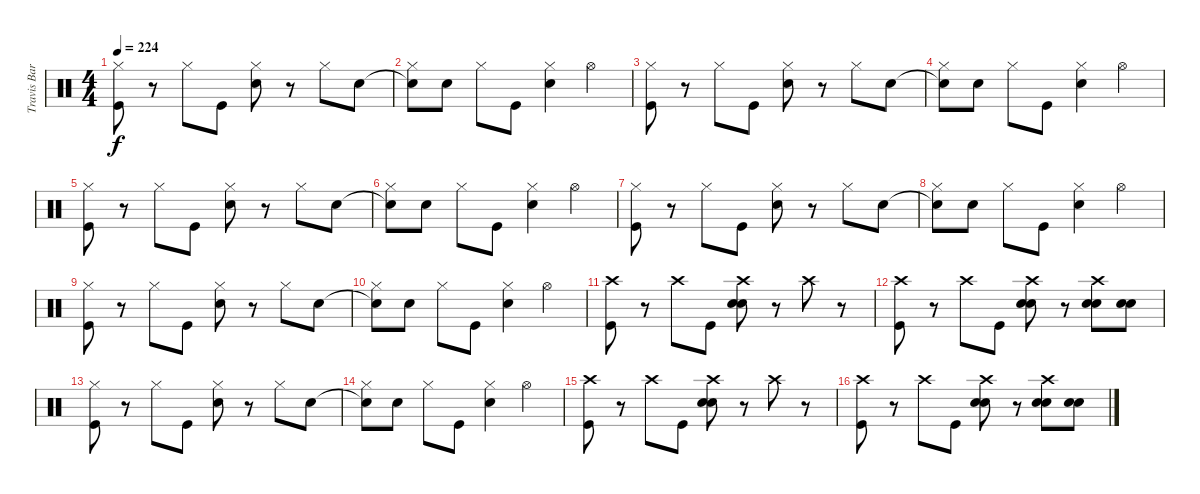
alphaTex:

\track ("Travis Barker (Drums)" "Travis Bar") {instrument percussion}
\staff {score}
\articulation defaults
\ts (4 4)
\tempo 224
\clef neutral
\ks c
("Kick (hit)" "Hi-Hat (closed)").8{dy f} r.8 "Hi-Hat (closed)".8 "Kick (hit)".8 ("Electric Snare (hit)" "Hi-Hat (closed)").8 r.8 "Hi-Hat (closed)".8 "Electric Snare (hit)".8 |
("Electric Snare (hit)"{t} "Hi-Hat (closed)").8 "Electric Snare (hit)".8 "Hi-Hat (closed)".8 "Kick (hit)".8 ("Electric Snare (hit)" "Hi-Hat (closed)").4 "Hi-Hat (open)".4 |
("Kick (hit)" "Hi-Hat (closed)").8 r.8 "Hi-Hat (closed)".8 "Kick (hit)".8 ("Electric Snare (hit)" "Hi-Hat (closed)").8 r.8 "Hi-Hat (closed)".8 "Electric Snare (hit)".8 |
("Electric Snare (hit)"{t} "Hi-Hat (closed)").8 "Electric Snare (hit)".8 "Hi-Hat (closed)".8 "Kick (hit)".8 ("Electric Snare (hit)" "Hi-Hat (closed)").4 "Hi-Hat (open)".4 |
("Kick (hit)" "Hi-Hat (closed)").8 r.8 "Hi-Hat (closed)".8 "Kick (hit)".8 ("Electric Snare (hit)" "Hi-Hat (closed)").8 r.8 "Hi-Hat (closed)".8 "Electric Snare (hit)".8 |
("Electric Snare (hit)"{t} "Hi-Hat (closed)").8 "Electric Snare (hit)".8 "Hi-Hat (closed)".8 "Kick (hit)".8 ("Electric Snare (hit)" "Hi-Hat (closed)").4 "Hi-Hat (open)".4 |
("Kick (hit)" "Hi-Hat (closed)").8 r.8 "Hi-Hat (closed)".8 "Kick (hit)".8 ("Electric Snare (hit)" "Hi-Hat (closed)").8 r.8 "Hi-Hat (closed)".8 "Electric Snare (hit)".8 |
("Electric Snare (hit)"{t} "Hi-Hat (closed)").8 "Electric Snare (hit)".8 "Hi-Hat (closed)".8 "Kick (hit)".8 ("Electric Snare (hit)" "Hi-Hat (closed)").4 "Hi-Hat (open)".4 |
("Kick (hit)" "Hi-Hat (closed)").8 r.8 "Hi-Hat (closed)".8 "Kick (hit)".8 ("Electric Snare (hit)" "Hi-Hat (closed)").8 r.8 "Hi-Hat (closed)".8 "Electric Snare (hit)".8 |
("Electric Snare (hit)"{t} "Hi-Hat (closed)").8 "Electric Snare (hit)".8 "Hi-Hat (closed)".8 "Kick (hit)".8 ("Electric Snare (hit)" "Hi-Hat (closed)").4 "Hi-Hat (open)".4 |
("Kick (hit)" "Crash high (hit)").8 r.8 "Crash high (hit)".8 "Kick (hit)".8 ("Electric Snare (hit)" "Electric Snare (hit)" "Crash high (hit)").8 r.8 "Crash high (hit)".8 r.8 |
("Kick (hit)" "Crash high (hit)").8 r.8 "Crash high (hit)".8 "Kick (hit)".8 ("Electric Snare (hit)" "Electric Snare (hit)" "Crash high (hit)").8 r.8 ("Electric Snare (hit)" "Electric Snare (hit)" "Crash high (hit)").8 ("Electric Snare (hit)" "Electric Snare (hit)").8 |
("Kick (hit)" "Hi-Hat (closed)").8 r.8 "Hi-Hat (closed)".8 "Kick (hit)".8 ("Electric Snare (hit)" "Hi-Hat (closed)").8 r.8 "Hi-Hat (closed)".8 "Electric Snare (hit)".8 |
("Electric Snare (hit)"{t} "Hi-Hat (closed)").8 "Electric Snare (hit)".8 "Hi-Hat (closed)".8 "Kick (hit)".8 ("Electric Snare (hit)" "Hi-Hat (closed)").4 "Hi-Hat (open)".4 |
("Kick (hit)" "Crash high (hit)").8 r.8 "Crash high (hit)".8 "Kick (hit)".8 ("Electric Snare (hit)" "Electric Snare (hit)" "Crash high (hit)").8 r.8 "Crash high (hit)".8 r.8 |
("Kick (hit)" "Crash high (hit)").8 r.8 "Crash high (hit)".8 "Kick (hit)".8 ("Electric Snare (hit)" "Electric Snare (hit)" "Crash high (hit)").8 r.8 ("Electric Snare (hit)" "Electric Snare (hit)" "Crash high (hit)").8 ("Electric Snare (hit)" "Electric Snare (hit)").8
